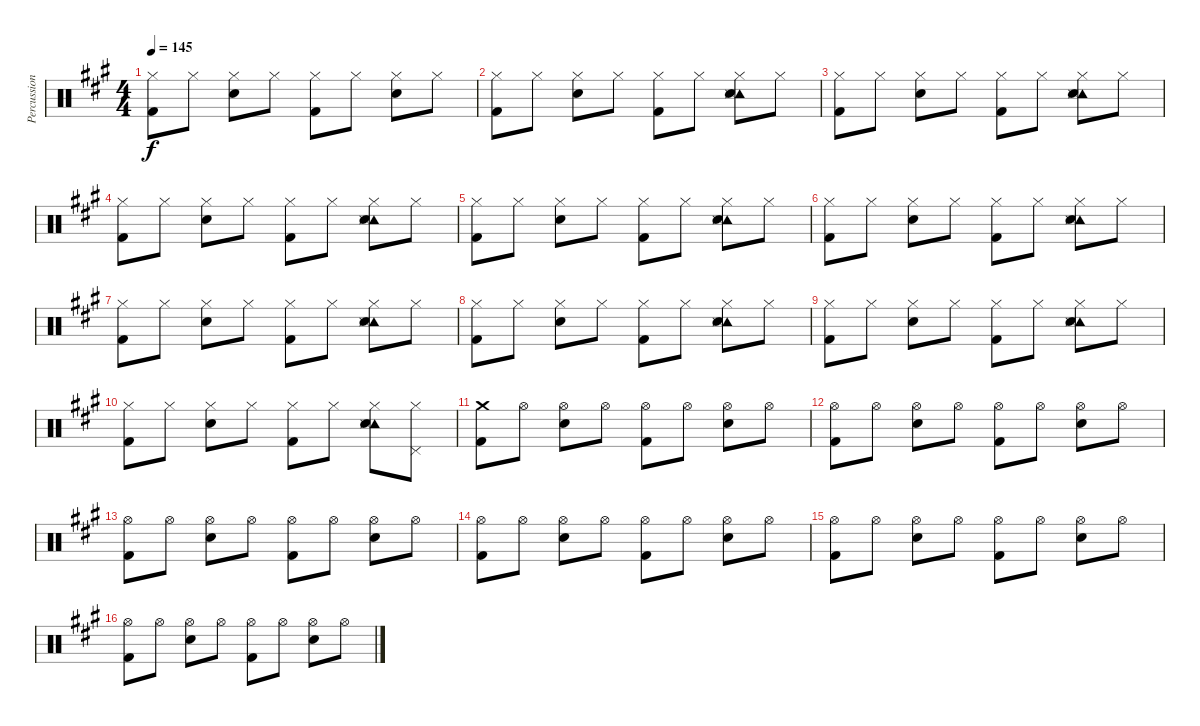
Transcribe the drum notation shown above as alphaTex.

\track ("Percussion" "Percussion") {instrument percussion}
\staff {score}
\articulation defaults
\ts (4 4)
\tempo 145
\clef neutral
\ks a
("Hi-Hat (closed)" "Kick (hit) 2").8{dy f} "Hi-Hat (closed)".8 ("Hi-Hat (closed)" "Snare (hit) 2").8 "Hi-Hat (closed)".8 ("Hi-Hat (closed)" "Kick (hit) 2").8 "Hi-Hat (closed)".8 ("Hi-Hat (closed)" "Snare (hit) 2").8 "Hi-Hat (closed)".8 |
("Hi-Hat (closed)" "Kick (hit) 2").8 "Hi-Hat (closed)".8 ("Hi-Hat (closed)" "Snare (hit) 2").8 "Hi-Hat (closed)".8 ("Hi-Hat (closed)" "Kick (hit) 2").8 "Hi-Hat (closed)".8 ("Hi-Hat (closed)" "Tambourine (hit)" "Snare (side stick) 3" "Snare (hit) 2").8 "Hi-Hat (closed)".8 |
("Hi-Hat (closed)" "Kick (hit) 2").8 "Hi-Hat (closed)".8 ("Hi-Hat (closed)" "Snare (hit) 2").8 "Hi-Hat (closed)".8 ("Hi-Hat (closed)" "Kick (hit) 2").8 "Hi-Hat (closed)".8 ("Hi-Hat (closed)" "Tambourine (hit)" "Snare (side stick) 3" "Snare (hit) 2").8 "Hi-Hat (closed)".8 |
("Hi-Hat (closed)" "Kick (hit) 2").8 "Hi-Hat (closed)".8 ("Hi-Hat (closed)" "Snare (hit) 2").8 "Hi-Hat (closed)".8 ("Hi-Hat (closed)" "Kick (hit) 2").8 "Hi-Hat (closed)".8 ("Hi-Hat (closed)" "Tambourine (hit)" "Snare (side stick) 3" "Snare (hit) 2").8 "Hi-Hat (closed)".8 |
("Hi-Hat (closed)" "Kick (hit) 2").8 "Hi-Hat (closed)".8 ("Hi-Hat (closed)" "Snare (hit) 2").8 "Hi-Hat (closed)".8 ("Hi-Hat (closed)" "Kick (hit) 2").8 "Hi-Hat (closed)".8 ("Hi-Hat (closed)" "Tambourine (hit)" "Snare (side stick) 3" "Snare (hit) 2").8 "Hi-Hat (closed)".8 |
("Hi-Hat (closed)" "Kick (hit) 2").8 "Hi-Hat (closed)".8 ("Hi-Hat (closed)" "Snare (hit) 2").8 "Hi-Hat (closed)".8 ("Hi-Hat (closed)" "Kick (hit) 2").8 "Hi-Hat (closed)".8 ("Hi-Hat (closed)" "Tambourine (hit)" "Snare (side stick) 3" "Snare (hit) 2").8 "Hi-Hat (closed)".8 |
("Hi-Hat (closed)" "Kick (hit) 2").8 "Hi-Hat (closed)".8 ("Hi-Hat (closed)" "Snare (hit) 2").8 "Hi-Hat (closed)".8 ("Hi-Hat (closed)" "Kick (hit) 2").8 "Hi-Hat (closed)".8 ("Hi-Hat (closed)" "Tambourine (hit)" "Snare (side stick) 3" "Snare (hit) 2").8 "Hi-Hat (closed)".8 |
("Hi-Hat (closed)" "Kick (hit) 2").8 "Hi-Hat (closed)".8 ("Hi-Hat (closed)" "Snare (hit) 2").8 "Hi-Hat (closed)".8 ("Hi-Hat (closed)" "Kick (hit) 2").8 "Hi-Hat (closed)".8 ("Hi-Hat (closed)" "Tambourine (hit)" "Snare (side stick) 3" "Snare (hit) 2").8 "Hi-Hat (closed)".8 |
("Hi-Hat (closed)" "Kick (hit) 2").8 "Hi-Hat (closed)".8 ("Hi-Hat (closed)" "Snare (hit) 2").8 "Hi-Hat (closed)".8 ("Hi-Hat (closed)" "Kick (hit) 2").8 "Hi-Hat (closed)".8 ("Hi-Hat (closed)" "Tambourine (hit)" "Snare (side stick) 3" "Snare (hit) 2").8 "Hi-Hat (closed)".8 |
("Hi-Hat (closed)" "Kick (hit) 2").8 "Hi-Hat (closed)".8 ("Hi-Hat (closed)" "Snare (hit) 2").8 "Hi-Hat (closed)".8 ("Hi-Hat (closed)" "Kick (hit) 2").8 "Hi-Hat (closed)".8 ("Hi-Hat (closed)" "Tambourine (hit)" "Snare (side stick) 3" "Snare (hit) 2").8 ("Hi-Hat (closed)" "Pedal Hi-Hat (hit)").8 |
("Crash medium (hit)" "Kick (hit) 2").8 "Hi-Hat (open)".8 ("Hi-Hat (open)" "Snare (hit) 2").8 "Hi-Hat (open)".8 ("Hi-Hat (open)" "Kick (hit) 2").8 "Hi-Hat (open)".8 ("Hi-Hat (open)" "Snare (hit) 2").8 "Hi-Hat (open)".8 |
("Hi-Hat (open)" "Kick (hit) 2").8 "Hi-Hat (open)".8 ("Hi-Hat (open)" "Snare (hit) 2").8 "Hi-Hat (open)".8 ("Hi-Hat (open)" "Kick (hit) 2").8 "Hi-Hat (open)".8 ("Hi-Hat (open)" "Snare (hit) 2").8 "Hi-Hat (open)".8 |
("Hi-Hat (open)" "Kick (hit) 2").8 "Hi-Hat (open)".8 ("Hi-Hat (open)" "Snare (hit) 2").8 "Hi-Hat (open)".8 ("Hi-Hat (open)" "Kick (hit) 2").8 "Hi-Hat (open)".8 ("Hi-Hat (open)" "Snare (hit) 2").8 "Hi-Hat (open)".8 |
("Hi-Hat (open)" "Kick (hit) 2").8 "Hi-Hat (open)".8 ("Hi-Hat (open)" "Snare (hit) 2").8 "Hi-Hat (open)".8 ("Hi-Hat (open)" "Kick (hit) 2").8 "Hi-Hat (open)".8 ("Hi-Hat (open)" "Snare (hit) 2").8 "Hi-Hat (open)".8 |
("Hi-Hat (open)" "Kick (hit) 2").8 "Hi-Hat (open)".8 ("Hi-Hat (open)" "Snare (hit) 2").8 "Hi-Hat (open)".8 ("Hi-Hat (open)" "Kick (hit) 2").8 "Hi-Hat (open)".8 ("Hi-Hat (open)" "Snare (hit) 2").8 "Hi-Hat (open)".8 |
("Hi-Hat (open)" "Kick (hit) 2").8 "Hi-Hat (open)".8 ("Hi-Hat (open)" "Snare (hit) 2").8 "Hi-Hat (open)".8 ("Hi-Hat (open)" "Kick (hit) 2").8 "Hi-Hat (open)".8 ("Hi-Hat (open)" "Snare (hit) 2").8 "Hi-Hat (open)".8
